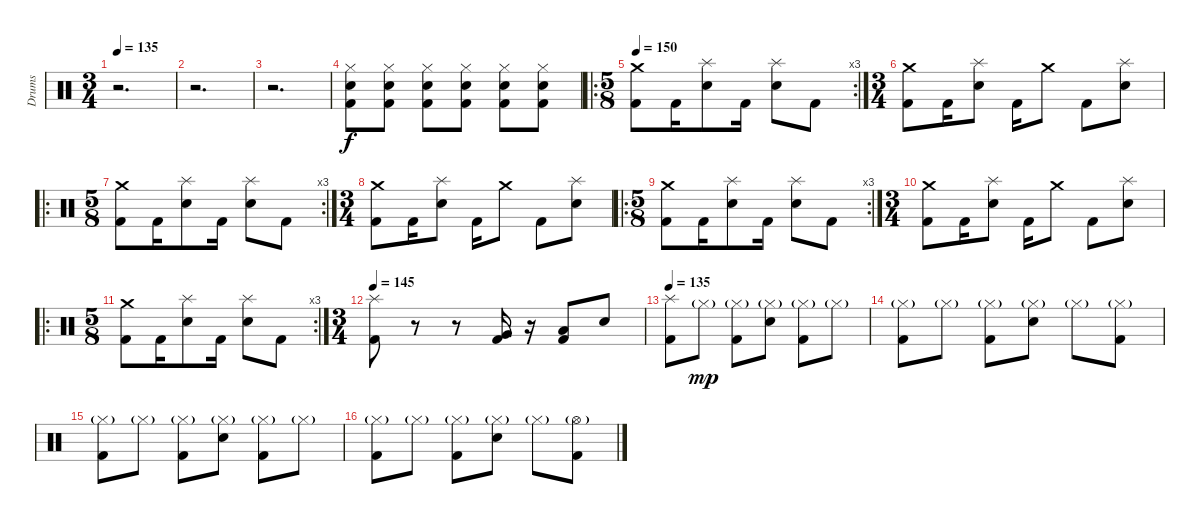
\track ("Drums" "Drums") {instrument percussion}
\staff {score}
\articulation defaults
\ts (3 4)
\tempo 135
\clef neutral
\ks c
r.2{d dy f} |
r.2{d} |
r.2{d} |
("Hi-Hat (closed)" "Electric Snare (hit)" "Kick (hit) 2").8 ("Hi-Hat (closed)" "Electric Snare (hit)" "Kick (hit) 2").8 ("Hi-Hat (closed)" "Electric Snare (hit)" "Kick (hit) 2").8 ("Hi-Hat (closed)" "Electric Snare (hit)" "Kick (hit) 2").8 ("Hi-Hat (closed)" "Electric Snare (hit)" "Kick (hit) 2").8 ("Hi-Hat (closed)" "Electric Snare (hit)" "Kick (hit) 2").8 |
\ro
\rc 3
\ts (5 8)
\tempo 150
("Crash medium (hit)" "Kick (hit) 2").8 "Kick (hit) 2".16 ("Splash (hit)" "Electric Snare (hit)").8 "Kick (hit) 2".16 ("Splash (hit)" "Electric Snare (hit)").8 "Kick (hit) 2".8 |
\ts (3 4)
("Crash medium (hit)" "Kick (hit) 2").8 "Kick (hit) 2".16 ("Splash (hit)" "Electric Snare (hit)").8 "Kick (hit) 2".16 "Crash medium (hit)".8 "Kick (hit) 2".8 ("Splash (hit)" "Electric Snare (hit)").8 |
\ro
\rc 3
\ts (5 8)
("Crash medium (hit)" "Kick (hit) 2").8 "Kick (hit) 2".16 ("Splash (hit)" "Electric Snare (hit)").8 "Kick (hit) 2".16 ("Splash (hit)" "Electric Snare (hit)").8 "Kick (hit) 2".8 |
\ts (3 4)
("Crash medium (hit)" "Kick (hit) 2").8 "Kick (hit) 2".16 ("Splash (hit)" "Electric Snare (hit)").8 "Kick (hit) 2".16 "Crash medium (hit)".8 "Kick (hit) 2".8 ("Splash (hit)" "Electric Snare (hit)").8 |
\ro
\rc 3
\ts (5 8)
("Crash medium (hit)" "Kick (hit) 2").8 "Kick (hit) 2".16 ("Splash (hit)" "Electric Snare (hit)").8 "Kick (hit) 2".16 ("Splash (hit)" "Electric Snare (hit)").8 "Kick (hit) 2".8 |
\ts (3 4)
("Crash medium (hit)" "Kick (hit) 2").8 "Kick (hit) 2".16 ("Splash (hit)" "Electric Snare (hit)").8 "Kick (hit) 2".16 "Crash medium (hit)".8 "Kick (hit) 2".8 ("Splash (hit)" "Electric Snare (hit)").8 |
\ro
\rc 3
\ts (5 8)
("Crash medium (hit)" "Kick (hit) 2").8 "Kick (hit) 2".16 ("Splash (hit)" "Electric Snare (hit)").8 "Kick (hit) 2".16 ("Splash (hit)" "Electric Snare (hit)").8 "Kick (hit) 2".8 |
\ts (3 4)
\tempo 145
("Splash (hit)" "Kick (hit) 2").8 r.8 r.8 ("Very Low Tom (hit)" "Kick (hit) 2").16 r.16 ("Low Floor Tom (hit)" "Kick (hit) 2").8 "Electric Snare (hit)".8 |
\tempo 135
("Splash (hit)" "Kick (hit) 2").8 "Hi-Hat (closed)"{g}.8{dy mp} ("Hi-Hat (closed)"{g} "Kick (hit) 2").8 ("Hi-Hat (closed)"{g} "Electric Snare (hit)").8 ("Hi-Hat (closed)"{g} "Kick (hit) 2").8 "Hi-Hat (closed)"{g}.8 |
("Hi-Hat (closed)"{g} "Kick (hit) 2").8 "Hi-Hat (closed)"{g}.8 ("Hi-Hat (closed)"{g} "Kick (hit) 2").8 ("Hi-Hat (closed)"{g} "Electric Snare (hit)").8 "Hi-Hat (closed)"{g}.8 ("Hi-Hat (closed)"{g} "Kick (hit) 2").8 |
("Hi-Hat (closed)"{g} "Kick (hit) 2").8 "Hi-Hat (closed)"{g}.8 ("Hi-Hat (closed)"{g} "Kick (hit) 2").8 ("Hi-Hat (closed)"{g} "Electric Snare (hit)").8 ("Hi-Hat (closed)"{g} "Kick (hit) 2").8 "Hi-Hat (closed)"{g}.8 |
("Hi-Hat (closed)"{g} "Kick (hit) 2").8 "Hi-Hat (closed)"{g}.8 ("Hi-Hat (closed)"{g} "Kick (hit) 2").8 ("Hi-Hat (closed)"{g} "Electric Snare (hit)").8 "Hi-Hat (closed)"{g}.8 ("Hi-Hat (open)"{g} "Kick (hit) 2").8
